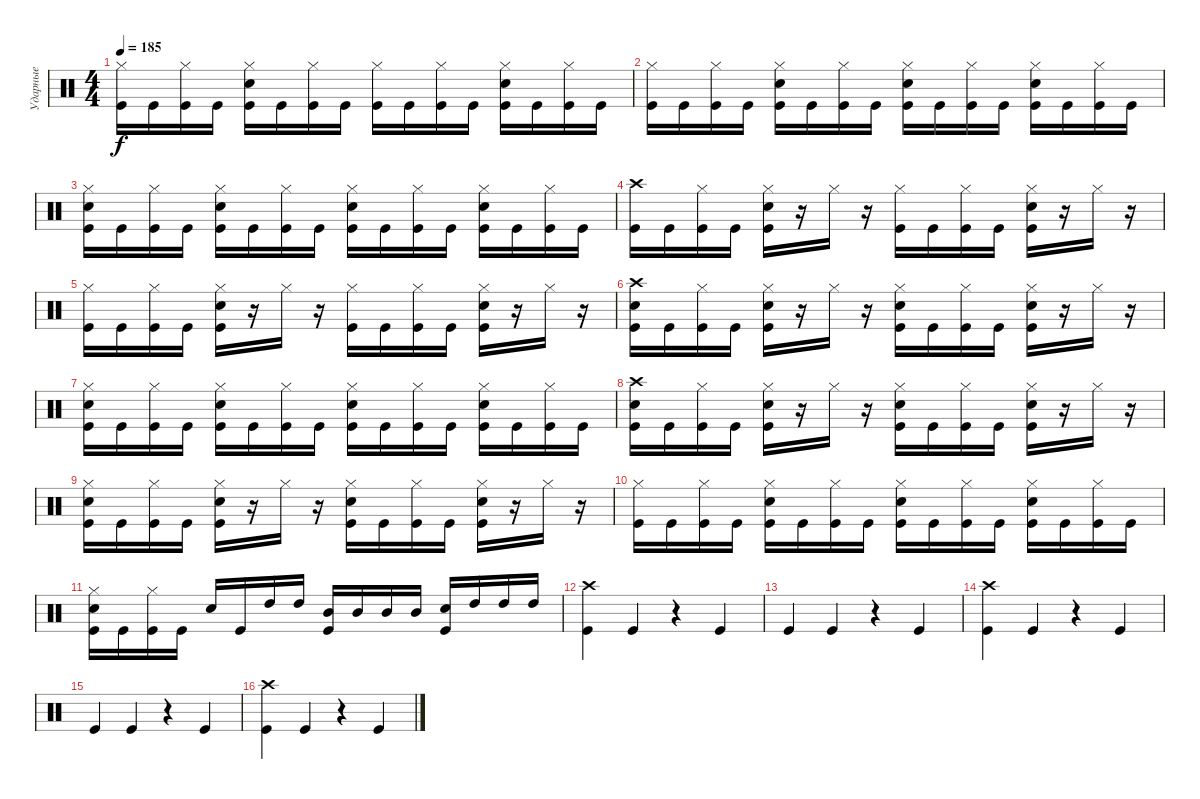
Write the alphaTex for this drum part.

\track ("Ударные" "Ударные") {instrument percussion}
\staff {score}
\articulation defaults
\ts (4 4)
\tempo 185
\clef neutral
\ks c
("Hi-Hat (closed)" "Kick (hit)").16{dy f} "Kick (hit)".16 ("Hi-Hat (closed)" "Kick (hit)").16 "Kick (hit)".16 ("Hi-Hat (closed)" "Electric Snare (hit)" "Kick (hit)").16 "Kick (hit)".16 ("Hi-Hat (closed)" "Kick (hit)").16 "Kick (hit)".16 ("Hi-Hat (closed)" "Kick (hit)").16 "Kick (hit)".16 ("Hi-Hat (closed)" "Kick (hit)").16 "Kick (hit)".16 ("Hi-Hat (closed)" "Electric Snare (hit)" "Kick (hit)").16 "Kick (hit)".16 ("Hi-Hat (closed)" "Kick (hit)").16 "Kick (hit)".16 |
("Hi-Hat (closed)" "Kick (hit)").16 "Kick (hit)".16 ("Hi-Hat (closed)" "Kick (hit)").16 "Kick (hit)".16 ("Hi-Hat (closed)" "Electric Snare (hit)" "Kick (hit)").16 "Kick (hit)".16 ("Hi-Hat (closed)" "Kick (hit)").16 "Kick (hit)".16 ("Hi-Hat (closed)" "Electric Snare (hit)" "Kick (hit)").16 "Kick (hit)".16 ("Hi-Hat (closed)" "Kick (hit)").16 "Kick (hit)".16 ("Hi-Hat (closed)" "Electric Snare (hit)" "Kick (hit)").16 "Kick (hit)".16 ("Hi-Hat (closed)" "Kick (hit)").16 "Kick (hit)".16 |
("Hi-Hat (closed)" "Electric Snare (hit)" "Kick (hit)").16 "Kick (hit)".16 ("Hi-Hat (closed)" "Kick (hit)").16 "Kick (hit)".16 ("Hi-Hat (closed)" "Electric Snare (hit)" "Kick (hit)").16 "Kick (hit)".16 ("Hi-Hat (closed)" "Kick (hit)").16 "Kick (hit)".16 ("Hi-Hat (closed)" "Electric Snare (hit)" "Kick (hit)").16 "Kick (hit)".16 ("Hi-Hat (closed)" "Kick (hit)").16 "Kick (hit)".16 ("Hi-Hat (closed)" "Electric Snare (hit)" "Kick (hit)").16 "Kick (hit)".16 ("Hi-Hat (closed)" "Kick (hit)").16 "Kick (hit)".16 |
("Crash high (hit)" "Kick (hit)").16 "Kick (hit)".16 ("Hi-Hat (closed)" "Kick (hit)").16 "Kick (hit)".16 ("Hi-Hat (closed)" "Electric Snare (hit)" "Kick (hit)").16 r.16 "Hi-Hat (closed)".16 r.16 ("Hi-Hat (closed)" "Kick (hit)").16 "Kick (hit)".16 ("Hi-Hat (closed)" "Kick (hit)").16 "Kick (hit)".16 ("Hi-Hat (closed)" "Electric Snare (hit)" "Kick (hit)").16 r.16 "Hi-Hat (closed)".16 r.16 |
("Hi-Hat (closed)" "Kick (hit)").16 "Kick (hit)".16 ("Hi-Hat (closed)" "Kick (hit)").16 "Kick (hit)".16 ("Hi-Hat (closed)" "Electric Snare (hit)" "Kick (hit)").16 r.16 "Hi-Hat (closed)".16 r.16 ("Hi-Hat (closed)" "Kick (hit)").16 "Kick (hit)".16 ("Hi-Hat (closed)" "Kick (hit)").16 "Kick (hit)".16 ("Hi-Hat (closed)" "Electric Snare (hit)" "Kick (hit)").16 r.16 "Hi-Hat (closed)".16 r.16 |
("Crash high (hit)" "Electric Snare (hit)" "Kick (hit)").16 "Kick (hit)".16 ("Hi-Hat (closed)" "Kick (hit)").16 "Kick (hit)".16 ("Hi-Hat (closed)" "Electric Snare (hit)" "Kick (hit)").16 r.16 "Hi-Hat (closed)".16 r.16 ("Hi-Hat (closed)" "Electric Snare (hit)" "Kick (hit)").16 "Kick (hit)".16 ("Hi-Hat (closed)" "Kick (hit)").16 "Kick (hit)".16 ("Hi-Hat (closed)" "Electric Snare (hit)" "Kick (hit)").16 r.16 "Hi-Hat (closed)".16 r.16 |
("Hi-Hat (closed)" "Electric Snare (hit)" "Kick (hit)").16 "Kick (hit)".16 ("Hi-Hat (closed)" "Kick (hit)").16 "Kick (hit)".16 ("Hi-Hat (closed)" "Electric Snare (hit)" "Kick (hit)").16 "Kick (hit)".16 ("Hi-Hat (closed)" "Kick (hit)").16 "Kick (hit)".16 ("Hi-Hat (closed)" "Electric Snare (hit)" "Kick (hit)").16 "Kick (hit)".16 ("Hi-Hat (closed)" "Kick (hit)").16 "Kick (hit)".16 ("Hi-Hat (closed)" "Electric Snare (hit)" "Kick (hit)").16 "Kick (hit)".16 ("Hi-Hat (closed)" "Kick (hit)").16 "Kick (hit)".16 |
("Crash high (hit)" "Electric Snare (hit)" "Kick (hit)").16 "Kick (hit)".16 ("Hi-Hat (closed)" "Kick (hit)").16 "Kick (hit)".16 ("Hi-Hat (closed)" "Electric Snare (hit)" "Kick (hit)").16 r.16 "Hi-Hat (closed)".16 r.16 ("Hi-Hat (closed)" "Electric Snare (hit)" "Kick (hit)").16 "Kick (hit)".16 ("Hi-Hat (closed)" "Kick (hit)").16 "Kick (hit)".16 ("Hi-Hat (closed)" "Electric Snare (hit)" "Kick (hit)").16 r.16 "Hi-Hat (closed)".16 r.16 |
("Hi-Hat (closed)" "Electric Snare (hit)" "Kick (hit)").16 "Kick (hit)".16 ("Hi-Hat (closed)" "Kick (hit)").16 "Kick (hit)".16 ("Hi-Hat (closed)" "Electric Snare (hit)" "Kick (hit)").16 r.16 "Hi-Hat (closed)".16 r.16 ("Hi-Hat (closed)" "Electric Snare (hit)" "Kick (hit)").16 "Kick (hit)".16 ("Hi-Hat (closed)" "Kick (hit)").16 "Kick (hit)".16 ("Hi-Hat (closed)" "Electric Snare (hit)" "Kick (hit)").16 r.16 "Hi-Hat (closed)".16 r.16 |
("Hi-Hat (closed)" "Kick (hit)").16 "Kick (hit)".16 ("Hi-Hat (closed)" "Kick (hit)").16 "Kick (hit)".16 ("Hi-Hat (closed)" "Electric Snare (hit)" "Kick (hit)").16 "Kick (hit)".16 ("Hi-Hat (closed)" "Kick (hit)").16 "Kick (hit)".16 ("Hi-Hat (closed)" "Electric Snare (hit)" "Kick (hit)").16 "Kick (hit)".16 ("Hi-Hat (closed)" "Kick (hit)").16 "Kick (hit)".16 ("Hi-Hat (closed)" "Electric Snare (hit)" "Kick (hit)").16 "Kick (hit)".16 ("Hi-Hat (closed)" "Kick (hit)").16 "Kick (hit)".16 |
("Hi-Hat (closed)" "Electric Snare (hit)" "Kick (hit)").16 "Kick (hit)".16 ("Hi-Hat (closed)" "Kick (hit)").16 "Kick (hit)".16 "Electric Snare (hit)".16 "Kick (hit)".16 "High Tom (hit)".16 "High Tom (hit)".16 ("Mid Tom (hit)" "Kick (hit)").16 "Mid Tom (hit)".16 "Mid Tom (hit)".16 "Mid Tom (hit)".16 ("Electric Snare (hit)" "Kick (hit)").16 "High Tom (hit)".16 "High Tom (hit)".16 "High Tom (hit)".16 |
("Crash high (hit)" "Kick (hit)").4 "Kick (hit)".4 r.4 "Kick (hit)".4 |
"Kick (hit)".4 "Kick (hit)".4 r.4 "Kick (hit)".4 |
("Crash high (hit)" "Kick (hit)").4 "Kick (hit)".4 r.4 "Kick (hit)".4 |
"Kick (hit)".4 "Kick (hit)".4 r.4 "Kick (hit)".4 |
("Crash high (hit)" "Kick (hit)").4 "Kick (hit)".4 r.4 "Kick (hit)".4
